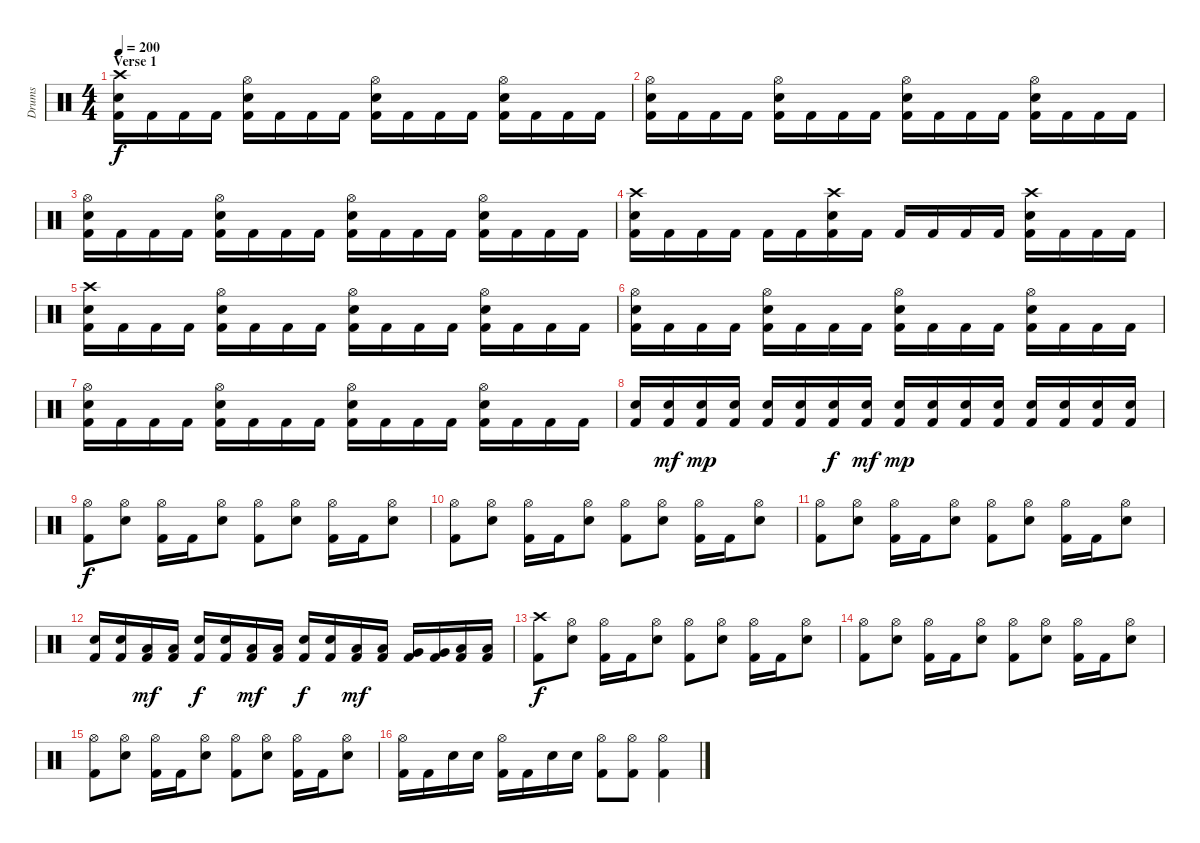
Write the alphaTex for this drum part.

\track ("Drums" "Drums") {instrument percussion}
\staff {score}
\articulation defaults
\ts (4 4)
\section ("" "Verse 1")
\tempo 200
\clef neutral
\ks c
("Crash high (hit)" "Snare (hit) 2" "Kick (hit) 2").16{dy f} "Kick (hit) 2".16 "Kick (hit) 2".16 "Kick (hit) 2".16 ("Hi-Hat (open)" "Snare (hit) 2" "Kick (hit) 2").16 "Kick (hit) 2".16 "Kick (hit) 2".16 "Kick (hit) 2".16 ("Hi-Hat (open)" "Snare (hit) 2" "Kick (hit) 2").16 "Kick (hit) 2".16 "Kick (hit) 2".16 "Kick (hit) 2".16 ("Hi-Hat (open)" "Snare (hit) 2" "Kick (hit) 2").16 "Kick (hit) 2".16 "Kick (hit) 2".16 "Kick (hit) 2".16 |
("Hi-Hat (open)" "Snare (hit) 2" "Kick (hit) 2").16 "Kick (hit) 2".16 "Kick (hit) 2".16 "Kick (hit) 2".16 ("Hi-Hat (open)" "Snare (hit) 2" "Kick (hit) 2").16 "Kick (hit) 2".16 "Kick (hit) 2".16 "Kick (hit) 2".16 ("Hi-Hat (open)" "Snare (hit) 2" "Kick (hit) 2").16 "Kick (hit) 2".16 "Kick (hit) 2".16 "Kick (hit) 2".16 ("Hi-Hat (open)" "Snare (hit) 2" "Kick (hit) 2").16 "Kick (hit) 2".16 "Kick (hit) 2".16 "Kick (hit) 2".16 |
("Hi-Hat (open)" "Snare (hit) 2" "Kick (hit) 2").16 "Kick (hit) 2".16 "Kick (hit) 2".16 "Kick (hit) 2".16 ("Hi-Hat (open)" "Snare (hit) 2" "Kick (hit) 2").16 "Kick (hit) 2".16 "Kick (hit) 2".16 "Kick (hit) 2".16 ("Hi-Hat (open)" "Snare (hit) 2" "Kick (hit) 2").16 "Kick (hit) 2".16 "Kick (hit) 2".16 "Kick (hit) 2".16 ("Hi-Hat (open)" "Snare (hit) 2" "Kick (hit) 2").16 "Kick (hit) 2".16 "Kick (hit) 2".16 "Kick (hit) 2".16 |
("Crash high (hit)" "Snare (hit) 2" "Kick (hit) 2").16 "Kick (hit) 2".16 "Kick (hit) 2".16 "Kick (hit) 2".16 "Kick (hit) 2".16 "Kick (hit) 2".16 ("Crash high (hit)" "Snare (hit) 2" "Kick (hit) 2").16 "Kick (hit) 2".16 "Kick (hit) 2".16 "Kick (hit) 2".16 "Kick (hit) 2".16 "Kick (hit) 2".16 ("Crash high (hit)" "Snare (hit) 2" "Kick (hit) 2").16 "Kick (hit) 2".16 "Kick (hit) 2".16 "Kick (hit) 2".16 |
("Crash high (hit)" "Snare (hit) 2" "Kick (hit) 2").16 "Kick (hit) 2".16 "Kick (hit) 2".16 "Kick (hit) 2".16 ("Hi-Hat (open)" "Snare (hit) 2" "Kick (hit) 2").16 "Kick (hit) 2".16 "Kick (hit) 2".16 "Kick (hit) 2".16 ("Hi-Hat (open)" "Snare (hit) 2" "Kick (hit) 2").16 "Kick (hit) 2".16 "Kick (hit) 2".16 "Kick (hit) 2".16 ("Hi-Hat (open)" "Snare (hit) 2" "Kick (hit) 2").16 "Kick (hit) 2".16 "Kick (hit) 2".16 "Kick (hit) 2".16 |
("Hi-Hat (open)" "Snare (hit) 2" "Kick (hit) 2").16 "Kick (hit) 2".16 "Kick (hit) 2".16 "Kick (hit) 2".16 ("Hi-Hat (open)" "Snare (hit) 2" "Kick (hit) 2").16 "Kick (hit) 2".16 "Kick (hit) 2".16 "Kick (hit) 2".16 ("Hi-Hat (open)" "Snare (hit) 2" "Kick (hit) 2").16 "Kick (hit) 2".16 "Kick (hit) 2".16 "Kick (hit) 2".16 ("Hi-Hat (open)" "Snare (hit) 2" "Kick (hit) 2").16 "Kick (hit) 2".16 "Kick (hit) 2".16 "Kick (hit) 2".16 |
("Hi-Hat (open)" "Snare (hit) 2" "Kick (hit) 2").16 "Kick (hit) 2".16 "Kick (hit) 2".16 "Kick (hit) 2".16 ("Hi-Hat (open)" "Snare (hit) 2" "Kick (hit) 2").16 "Kick (hit) 2".16 "Kick (hit) 2".16 "Kick (hit) 2".16 ("Hi-Hat (open)" "Snare (hit) 2" "Kick (hit) 2").16 "Kick (hit) 2".16 "Kick (hit) 2".16 "Kick (hit) 2".16 ("Hi-Hat (open)" "Snare (hit) 2" "Kick (hit) 2").16 "Kick (hit) 2".16 "Kick (hit) 2".16 "Kick (hit) 2".16 |
("Snare (hit) 2" "Kick (hit) 2").16 ("Snare (hit) 2" "Kick (hit) 2").16{dy mf} ("Snare (hit) 2" "Kick (hit) 2").16{dy mp} ("Snare (hit) 2" "Kick (hit) 2").16 ("Snare (hit) 2" "Kick (hit) 2").16 ("Snare (hit) 2" "Kick (hit) 2").16 ("Snare (hit) 2" "Kick (hit) 2").16{dy f} ("Snare (hit) 2" "Kick (hit) 2").16{dy mf} ("Snare (hit) 2" "Kick (hit) 2").16{dy mp} ("Snare (hit) 2" "Kick (hit) 2").16 ("Snare (hit) 2" "Kick (hit) 2").16 ("Snare (hit) 2" "Kick (hit) 2").16 ("Snare (hit) 2" "Kick (hit) 2").16 ("Snare (hit) 2" "Kick (hit) 2").16 ("Snare (hit) 2" "Kick (hit) 2").16 ("Snare (hit) 2" "Kick (hit) 2").16 |
("Hi-Hat (open)" "Kick (hit) 2").8{dy f} ("Hi-Hat (open)" "Snare (hit) 2").8 ("Hi-Hat (open)" "Kick (hit) 2").16 "Kick (hit) 2".16 ("Hi-Hat (open)" "Snare (hit) 2").8 ("Hi-Hat (open)" "Kick (hit) 2").8 ("Hi-Hat (open)" "Snare (hit) 2").8 ("Hi-Hat (open)" "Kick (hit) 2").16 "Kick (hit) 2".16 ("Hi-Hat (open)" "Snare (hit) 2").8 |
("Hi-Hat (open)" "Kick (hit) 2").8 ("Hi-Hat (open)" "Snare (hit) 2").8 ("Hi-Hat (open)" "Kick (hit) 2").16 "Kick (hit) 2".16 ("Hi-Hat (open)" "Snare (hit) 2").8 ("Hi-Hat (open)" "Kick (hit) 2").8 ("Hi-Hat (open)" "Snare (hit) 2").8 ("Hi-Hat (open)" "Kick (hit) 2").16 "Kick (hit) 2".16 ("Hi-Hat (open)" "Snare (hit) 2").8 |
("Hi-Hat (open)" "Kick (hit) 2").8 ("Hi-Hat (open)" "Snare (hit) 2").8 ("Hi-Hat (open)" "Kick (hit) 2").16 "Kick (hit) 2".16 ("Hi-Hat (open)" "Snare (hit) 2").8 ("Hi-Hat (open)" "Kick (hit) 2").8 ("Hi-Hat (open)" "Snare (hit) 2").8 ("Hi-Hat (open)" "Kick (hit) 2").16 "Kick (hit) 2".16 ("Hi-Hat (open)" "Snare (hit) 2").8 |
("Snare (hit) 2" "Kick (hit) 2").16 ("Snare (hit) 2" "Kick (hit) 2").16 ("Low Floor Tom (hit)" "Kick (hit) 2").16{dy mf} ("Low Floor Tom (hit)" "Kick (hit) 2").16 ("Snare (hit) 2" "Kick (hit) 2").16{dy f} ("Snare (hit) 2" "Kick (hit) 2").16 ("Low Floor Tom (hit)" "Kick (hit) 2").16{dy mf} ("Low Floor Tom (hit)" "Kick (hit) 2").16 ("Snare (hit) 2" "Kick (hit) 2").16{dy f} ("Snare (hit) 2" "Kick (hit) 2").16 ("Low Tom (hit)" "Kick (hit) 2").16{dy mf} ("Low Tom (hit)" "Kick (hit) 2").16 ("Very Low Tom (hit)" "Kick (hit) 2").16 ("Very Low Tom (hit)" "Kick (hit) 2").16 ("Low Floor Tom (hit)" "Kick (hit) 2").16 ("Low Floor Tom (hit)" "Kick (hit) 2").16 |
("Crash high (hit)" "Kick (hit) 2").8{dy f} ("Hi-Hat (open)" "Snare (hit) 2").8 ("Hi-Hat (open)" "Kick (hit) 2").16 "Kick (hit) 2".16 ("Hi-Hat (open)" "Snare (hit) 2").8 ("Hi-Hat (open)" "Kick (hit) 2").8 ("Hi-Hat (open)" "Snare (hit) 2").8 ("Hi-Hat (open)" "Kick (hit) 2").16 "Kick (hit) 2".16 ("Hi-Hat (open)" "Snare (hit) 2").8 |
("Hi-Hat (open)" "Kick (hit) 2").8 ("Hi-Hat (open)" "Snare (hit) 2").8 ("Hi-Hat (open)" "Kick (hit) 2").16 "Kick (hit) 2".16 ("Hi-Hat (open)" "Snare (hit) 2").8 ("Hi-Hat (open)" "Kick (hit) 2").8 ("Hi-Hat (open)" "Snare (hit) 2").8 ("Hi-Hat (open)" "Kick (hit) 2").16 "Kick (hit) 2".16 ("Hi-Hat (open)" "Snare (hit) 2").8 |
("Hi-Hat (open)" "Kick (hit) 2").8 ("Hi-Hat (open)" "Snare (hit) 2").8 ("Hi-Hat (open)" "Kick (hit) 2").16 "Kick (hit) 2".16 ("Hi-Hat (open)" "Snare (hit) 2").8 ("Hi-Hat (open)" "Kick (hit) 2").8 ("Hi-Hat (open)" "Snare (hit) 2").8 ("Hi-Hat (open)" "Kick (hit) 2").16 "Kick (hit) 2".16 ("Hi-Hat (open)" "Snare (hit) 2").8 |
("Hi-Hat (open)" "Kick (hit) 2").16 "Kick (hit) 2".16 "Snare (hit) 2".16 "Snare (hit) 2".16 ("Hi-Hat (open)" "Kick (hit) 2").16 "Kick (hit) 2".16 "Snare (hit) 2".16 "Snare (hit) 2".16 ("Hi-Hat (open)" "Kick (hit) 2").8 ("Hi-Hat (open)" "Kick (hit) 2").8 ("Hi-Hat (open)" "Kick (hit) 2").4
